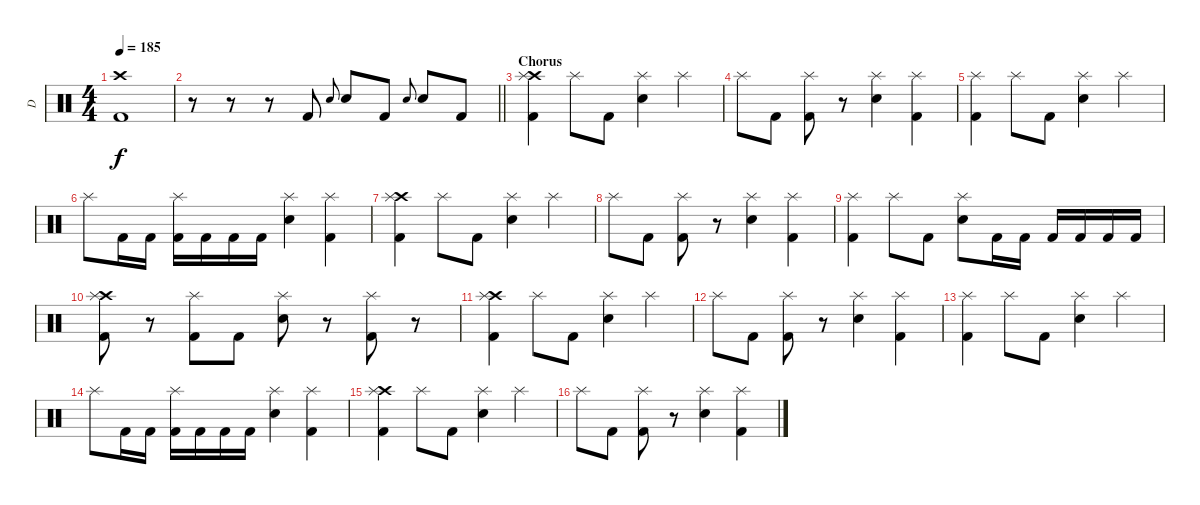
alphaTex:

\track ("D" "D") {instrument percussion}
\staff {score}
\articulation defaults
\ts (4 4)
\tempo 185
\clef neutral
\ks c
("Crash high (hit)" "Kick (hit) 2").1{dy f} |
\barLineRight lightlight
r.8 r.8 r.8 "Kick (hit) 2".8 "Electric Snare (hit)".8{gr onbeat} "Electric Snare (hit)".8 "Kick (hit) 2".8 "Electric Snare (hit)".8{gr onbeat} "Electric Snare (hit)".8 "Kick (hit) 2".8 |
\section ("" "Chorus")
("Crash high (hit)" "Kick (hit) 2" "Splash (hit)").4 "Splash (hit)".8 "Kick (hit) 2".8 ("Electric Snare (hit)" "Splash (hit)").4 "Splash (hit)".4 |
"Splash (hit)".8 "Kick (hit) 2".8 ("Kick (hit) 2" "Splash (hit)").8 r.8 ("Electric Snare (hit)" "Splash (hit)").4 ("Kick (hit) 2" "Splash (hit)").4 |
("Kick (hit) 2" "Splash (hit)").4 "Splash (hit)".8 "Kick (hit) 2".8 ("Electric Snare (hit)" "Splash (hit)").4 "Splash (hit)".4 |
"Splash (hit)".8 "Kick (hit) 2".16 "Kick (hit) 2".16 ("Kick (hit) 2" "Splash (hit)").16 "Kick (hit) 2".16 "Kick (hit) 2".16 "Kick (hit) 2".16 ("Electric Snare (hit)" "Splash (hit)").4 ("Kick (hit) 2" "Splash (hit)").4 |
("Crash high (hit)" "Kick (hit) 2" "Splash (hit)").4 "Splash (hit)".8 "Kick (hit) 2".8 ("Electric Snare (hit)" "Splash (hit)").4 "Splash (hit)".4 |
"Splash (hit)".8 "Kick (hit) 2".8 ("Kick (hit) 2" "Splash (hit)").8 r.8 ("Electric Snare (hit)" "Splash (hit)").4 ("Kick (hit) 2" "Splash (hit)").4 |
("Kick (hit) 2" "Splash (hit)").4 "Splash (hit)".8 "Kick (hit) 2".8 ("Electric Snare (hit)" "Splash (hit)").8 "Kick (hit) 2".16 "Kick (hit) 2".16 "Kick (hit) 2".16 "Kick (hit) 2".16 "Kick (hit) 2".16 "Kick (hit) 2".16 |
("Crash high (hit)" "Kick (hit) 2" "Splash (hit)").8 r.8 ("Kick (hit) 2" "Splash (hit)").8 "Kick (hit) 2".8 ("Electric Snare (hit)" "Splash (hit)").8 r.8 ("Kick (hit) 2" "Splash (hit)").8 r.8 |
("Crash high (hit)" "Kick (hit) 2" "Splash (hit)").4 "Splash (hit)".8 "Kick (hit) 2".8 ("Electric Snare (hit)" "Splash (hit)").4 "Splash (hit)".4 |
"Splash (hit)".8 "Kick (hit) 2".8 ("Kick (hit) 2" "Splash (hit)").8 r.8 ("Electric Snare (hit)" "Splash (hit)").4 ("Kick (hit) 2" "Splash (hit)").4 |
("Kick (hit) 2" "Splash (hit)").4 "Splash (hit)".8 "Kick (hit) 2".8 ("Electric Snare (hit)" "Splash (hit)").4 "Splash (hit)".4 |
"Splash (hit)".8 "Kick (hit) 2".16 "Kick (hit) 2".16 ("Kick (hit) 2" "Splash (hit)").16 "Kick (hit) 2".16 "Kick (hit) 2".16 "Kick (hit) 2".16 ("Electric Snare (hit)" "Splash (hit)").4 ("Kick (hit) 2" "Splash (hit)").4 |
("Crash high (hit)" "Kick (hit) 2" "Splash (hit)").4 "Splash (hit)".8 "Kick (hit) 2".8 ("Electric Snare (hit)" "Splash (hit)").4 "Splash (hit)".4 |
"Splash (hit)".8 "Kick (hit) 2".8 ("Kick (hit) 2" "Splash (hit)").8 r.8 ("Electric Snare (hit)" "Splash (hit)").4 ("Kick (hit) 2" "Splash (hit)").4
